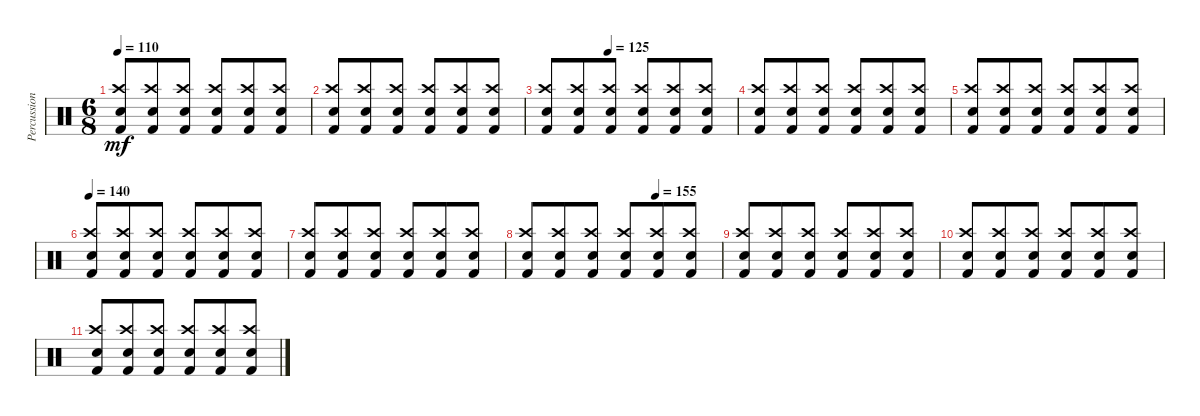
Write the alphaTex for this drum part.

\track ("Percussion" "Percussion") {instrument percussion}
\staff {score}
\articulation defaults
\ts (6 8)
\tempo 110
\clef neutral
\ks c
("Kick (hit) 2" "Crash high (hit)" "Snare (hit) 2").8{dy mf} ("Kick (hit) 2" "Crash high (hit)" "Snare (hit) 2").8 ("Kick (hit) 2" "Crash high (hit)" "Snare (hit) 2").8 ("Kick (hit) 2" "Crash high (hit)" "Snare (hit) 2").8 ("Kick (hit) 2" "Crash high (hit)" "Snare (hit) 2").8 ("Kick (hit) 2" "Crash high (hit)" "Snare (hit) 2").8 |
("Kick (hit) 2" "Crash high (hit)" "Snare (hit) 2").8 ("Kick (hit) 2" "Crash high (hit)" "Snare (hit) 2").8 ("Kick (hit) 2" "Crash high (hit)" "Snare (hit) 2").8 ("Kick (hit) 2" "Crash high (hit)" "Snare (hit) 2").8 ("Kick (hit) 2" "Crash high (hit)" "Snare (hit) 2").8 ("Kick (hit) 2" "Crash high (hit)" "Snare (hit) 2").8 |
\tempo (125 0.3333333333333333)
("Kick (hit) 2" "Crash high (hit)" "Snare (hit) 2").8 ("Kick (hit) 2" "Crash high (hit)" "Snare (hit) 2").8 ("Kick (hit) 2" "Crash high (hit)" "Snare (hit) 2").8 ("Kick (hit) 2" "Crash high (hit)" "Snare (hit) 2").8 ("Kick (hit) 2" "Crash high (hit)" "Snare (hit) 2").8 ("Kick (hit) 2" "Crash high (hit)" "Snare (hit) 2").8 |
("Kick (hit) 2" "Crash high (hit)" "Snare (hit) 2").8 ("Kick (hit) 2" "Crash high (hit)" "Snare (hit) 2").8 ("Kick (hit) 2" "Crash high (hit)" "Snare (hit) 2").8 ("Kick (hit) 2" "Crash high (hit)" "Snare (hit) 2").8 ("Kick (hit) 2" "Crash high (hit)" "Snare (hit) 2").8 ("Kick (hit) 2" "Crash high (hit)" "Snare (hit) 2").8 |
("Kick (hit) 2" "Crash high (hit)" "Snare (hit) 2").8 ("Kick (hit) 2" "Crash high (hit)" "Snare (hit) 2").8 ("Kick (hit) 2" "Crash high (hit)" "Snare (hit) 2").8 ("Kick (hit) 2" "Crash high (hit)" "Snare (hit) 2").8 ("Kick (hit) 2" "Crash high (hit)" "Snare (hit) 2").8 ("Kick (hit) 2" "Crash high (hit)" "Snare (hit) 2").8 |
\tempo 140
("Kick (hit) 2" "Crash high (hit)" "Snare (hit) 2").8 ("Kick (hit) 2" "Crash high (hit)" "Snare (hit) 2").8 ("Kick (hit) 2" "Crash high (hit)" "Snare (hit) 2").8 ("Kick (hit) 2" "Crash high (hit)" "Snare (hit) 2").8 ("Kick (hit) 2" "Crash high (hit)" "Snare (hit) 2").8 ("Kick (hit) 2" "Crash high (hit)" "Snare (hit) 2").8 |
("Kick (hit) 2" "Crash high (hit)" "Snare (hit) 2").8 ("Kick (hit) 2" "Crash high (hit)" "Snare (hit) 2").8 ("Kick (hit) 2" "Crash high (hit)" "Snare (hit) 2").8 ("Kick (hit) 2" "Crash high (hit)" "Snare (hit) 2").8 ("Kick (hit) 2" "Crash high (hit)" "Snare (hit) 2").8 ("Kick (hit) 2" "Crash high (hit)" "Snare (hit) 2").8 |
\tempo (155 0.6666666666666666)
("Kick (hit) 2" "Crash high (hit)" "Snare (hit) 2").8 ("Kick (hit) 2" "Crash high (hit)" "Snare (hit) 2").8 ("Kick (hit) 2" "Crash high (hit)" "Snare (hit) 2").8 ("Kick (hit) 2" "Crash high (hit)" "Snare (hit) 2").8 ("Kick (hit) 2" "Crash high (hit)" "Snare (hit) 2").8 ("Kick (hit) 2" "Crash high (hit)" "Snare (hit) 2").8 |
("Kick (hit) 2" "Crash high (hit)" "Snare (hit) 2").8 ("Kick (hit) 2" "Crash high (hit)" "Snare (hit) 2").8 ("Kick (hit) 2" "Crash high (hit)" "Snare (hit) 2").8 ("Kick (hit) 2" "Crash high (hit)" "Snare (hit) 2").8 ("Kick (hit) 2" "Crash high (hit)" "Snare (hit) 2").8 ("Kick (hit) 2" "Crash high (hit)" "Snare (hit) 2").8 |
("Kick (hit) 2" "Crash high (hit)" "Snare (hit) 2").8 ("Kick (hit) 2" "Crash high (hit)" "Snare (hit) 2").8 ("Kick (hit) 2" "Crash high (hit)" "Snare (hit) 2").8 ("Kick (hit) 2" "Crash high (hit)" "Snare (hit) 2").8 ("Kick (hit) 2" "Crash high (hit)" "Snare (hit) 2").8 ("Kick (hit) 2" "Crash high (hit)" "Snare (hit) 2").8 |
("Kick (hit) 2" "Crash high (hit)" "Snare (hit) 2").8 ("Kick (hit) 2" "Crash high (hit)" "Snare (hit) 2").8 ("Kick (hit) 2" "Crash high (hit)" "Snare (hit) 2").8 ("Kick (hit) 2" "Crash high (hit)" "Snare (hit) 2").8 ("Kick (hit) 2" "Crash high (hit)" "Snare (hit) 2").8 ("Kick (hit) 2" "Crash high (hit)" "Snare (hit) 2").8
